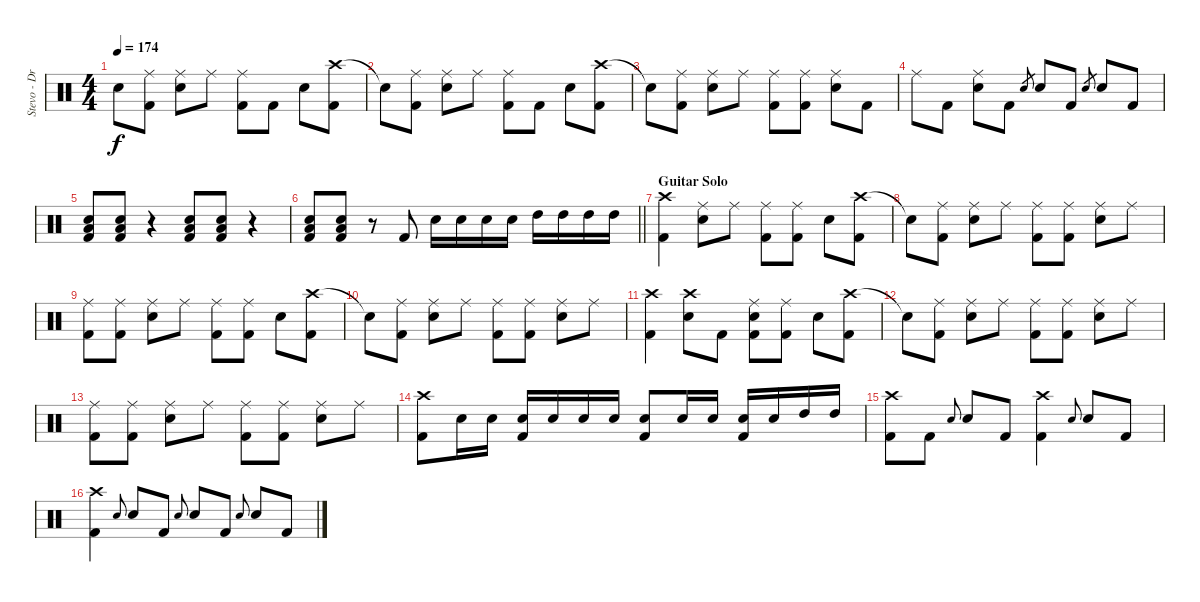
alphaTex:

\track ("Stevo - Drums" "Stevo - Dr") {instrument percussion}
\staff {score}
\articulation defaults
\ts (4 4)
\tempo 174
\clef neutral
\ks c "Snare (hit)"{t}.8{dy f}
("Ride (middle)" "Kick (hit) 2").8 ("Ride (middle)" "Electric Snare (hit)").8 "Ride (middle)".8 ("Ride (middle)" "Kick (hit) 2").8 "Kick (hit) 2".8 "Electric Snare (hit)".8 ("Crash high (hit)" "Kick (hit) 2").8 |
"Snare (hit)"{t}.8 ("Ride (middle)" "Kick (hit) 2").8 ("Ride (middle)" "Electric Snare (hit)").8 "Ride (middle)".8 ("Ride (middle)" "Kick (hit) 2").8 "Kick (hit) 2".8 "Electric Snare (hit)".8 ("Crash high (hit)" "Kick (hit) 2").8 |
"Snare (hit)"{t}.8 ("Ride (middle)" "Kick (hit) 2").8 ("Ride (middle)" "Electric Snare (hit)").8 "Ride (middle)".8 ("Ride (middle)" "Kick (hit) 2").8 ("Ride (middle)" "Kick (hit) 2").8 ("Ride (middle)" "Electric Snare (hit)").8 "Kick (hit) 2".8 |
"Ride (middle)".8 "Kick (hit) 2".8 ("Ride (middle)" "Electric Snare (hit)").8 "Kick (hit) 2".8 "Electric Snare (hit)".8{gr} "Electric Snare (hit)".8 "Kick (hit) 2".8 "Electric Snare (hit)".8{gr} "Electric Snare (hit)".8 "Kick (hit) 2".8 |
("Electric Snare (hit)" "Low Floor Tom (hit)" "Kick (hit) 2").8 ("Electric Snare (hit)" "Low Floor Tom (hit)" "Kick (hit) 2").8 r.4 ("Electric Snare (hit)" "Low Floor Tom (hit)" "Kick (hit) 2").8 ("Electric Snare (hit)" "Low Floor Tom (hit)" "Kick (hit) 2").8 r.4 |
\barLineRight lightlight
("Electric Snare (hit)" "Low Floor Tom (hit)" "Kick (hit) 2").8 ("Electric Snare (hit)" "Low Floor Tom (hit)" "Kick (hit) 2").8 r.8 "Kick (hit) 2".8 "Electric Snare (hit)".16 "Electric Snare (hit)".16 "Electric Snare (hit)".16 "Electric Snare (hit)".16 "High Tom (hit)".16 "High Tom (hit)".16 "High Tom (hit)".16 "High Tom (hit)".16 |
\section ("" "Guitar Solo")
("Crash high (hit)" "Kick (hit) 2").4 ("Ride (middle)" "Electric Snare (hit)").8 "Ride (middle)".8 ("Ride (middle)" "Kick (hit) 2").8 ("Ride (middle)" "Kick (hit) 2").8 "Electric Snare (hit)".8 ("Crash high (hit)" "Kick (hit) 2").8 |
"Snare (hit)"{t}.8 ("Ride (middle)" "Kick (hit) 2").8 ("Ride (middle)" "Electric Snare (hit)").8 "Ride (middle)".8 ("Ride (middle)" "Kick (hit) 2").8 ("Ride (middle)" "Kick (hit) 2").8 ("Ride (middle)" "Electric Snare (hit)").8 "Ride (middle)".8 |
("Ride (middle)" "Kick (hit) 2").8 ("Ride (middle)" "Kick (hit) 2").8 ("Ride (middle)" "Electric Snare (hit)").8 "Ride (middle)".8 ("Ride (middle)" "Kick (hit) 2").8 ("Ride (middle)" "Kick (hit) 2").8 "Electric Snare (hit)".8 ("Crash high (hit)" "Kick (hit) 2").8 |
"Snare (hit)"{t}.8 ("Ride (middle)" "Kick (hit) 2").8 ("Ride (middle)" "Electric Snare (hit)").8 "Ride (middle)".8 ("Ride (middle)" "Kick (hit) 2").8 ("Ride (middle)" "Kick (hit) 2").8 ("Ride (middle)" "Electric Snare (hit)").8 "Ride (middle)".8 |
("Crash high (hit)" "Kick (hit) 2").4 ("Crash high (hit)" "Electric Snare (hit)").8 "Kick (hit) 2".8 ("Ride (middle)" "Electric Snare (hit)" "Kick (hit) 2").8 ("Ride (middle)" "Kick (hit) 2").8 "Electric Snare (hit)".8 ("Crash high (hit)" "Kick (hit) 2").8 |
"Snare (hit)"{t}.8 ("Ride (middle)" "Kick (hit) 2").8 ("Ride (middle)" "Electric Snare (hit)").8 "Ride (middle)".8 ("Ride (middle)" "Kick (hit) 2").8 ("Ride (middle)" "Kick (hit) 2").8 ("Ride (middle)" "Electric Snare (hit)").8 "Ride (middle)".8 |
("Ride (middle)" "Kick (hit) 2").8 ("Ride (middle)" "Kick (hit) 2").8 ("Ride (middle)" "Electric Snare (hit)").8 "Ride (middle)".8 ("Ride (middle)" "Kick (hit) 2").8 ("Ride (middle)" "Kick (hit) 2").8 ("Ride (middle)" "Electric Snare (hit)").8 "Ride (middle)".8 |
("Crash high (hit)" "Kick (hit) 2").8 "Electric Snare (hit)".16 "Electric Snare (hit)".16 ("Electric Snare (hit)" "Kick (hit) 2").16 "Electric Snare (hit)".16 "Electric Snare (hit)".16 "Electric Snare (hit)".16 ("Electric Snare (hit)" "Kick (hit) 2").8 "Electric Snare (hit)".16 "Electric Snare (hit)".16 ("Electric Snare (hit)" "Kick (hit) 2").16 "Electric Snare (hit)".16 "High Tom (hit)".16 "High Tom (hit)".16 |
("Crash high (hit)" "Kick (hit) 2").8 "Kick (hit) 2".8 "Electric Snare (hit)".8{gr onbeat} "Electric Snare (hit)".8 "Kick (hit) 2".8 ("Crash high (hit)" "Kick (hit) 2").4 "Electric Snare (hit)".8{gr onbeat} "Electric Snare (hit)".8 "Kick (hit) 2".8 |
("Crash high (hit)" "Kick (hit) 2").4 "Electric Snare (hit)".8{gr onbeat} "Electric Snare (hit)".8 "Kick (hit) 2".8 "Electric Snare (hit)".8{gr onbeat} "Electric Snare (hit)".8 "Kick (hit) 2".8 "Electric Snare (hit)".8{gr onbeat} "Electric Snare (hit)".8 "Kick (hit) 2".8
